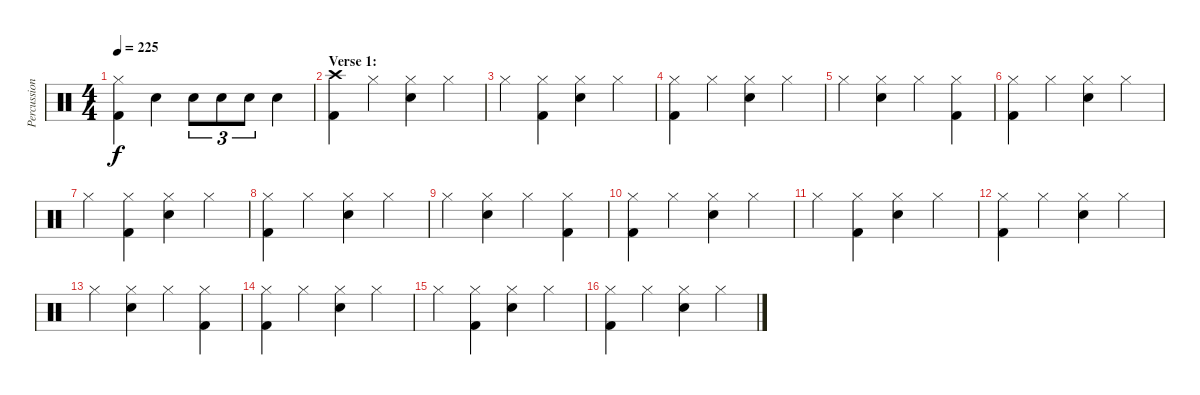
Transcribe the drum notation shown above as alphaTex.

\track ("Percussion" "Percussion") {instrument percussion}
\staff {score}
\articulation defaults
\ts (4 4)
\tempo 225
\clef neutral
\ks c
("Hi-Hat (closed)" "Kick (hit) 2").4{dy f} "Electric Snare (hit)".4 "Electric Snare (hit)".8{tu (3 2)} "Electric Snare (hit)".8{tu (3 2)} "Electric Snare (hit)".8{tu (3 2)} "Electric Snare (hit)".4 |
\section ("" "Verse 1:")
("Crash high (hit)" "Kick (hit) 2").4 "Hi-Hat (closed)".4 ("Hi-Hat (closed)" "Electric Snare (hit)").4 "Hi-Hat (closed)".4 |
"Hi-Hat (closed)".4 ("Hi-Hat (closed)" "Kick (hit) 2").4 ("Hi-Hat (closed)" "Electric Snare (hit)").4 "Hi-Hat (closed)".4 |
("Hi-Hat (closed)" "Kick (hit) 2").4 "Hi-Hat (closed)".4 ("Hi-Hat (closed)" "Electric Snare (hit)").4 "Hi-Hat (closed)".4 |
"Hi-Hat (closed)".4 ("Hi-Hat (closed)" "Electric Snare (hit)").4 "Hi-Hat (closed)".4 ("Hi-Hat (closed)" "Kick (hit) 2").4 |
("Hi-Hat (closed)" "Kick (hit) 2").4 "Hi-Hat (closed)".4 ("Hi-Hat (closed)" "Electric Snare (hit)").4 "Hi-Hat (closed)".4 |
"Hi-Hat (closed)".4 ("Hi-Hat (closed)" "Kick (hit) 2").4 ("Hi-Hat (closed)" "Electric Snare (hit)").4 "Hi-Hat (closed)".4 |
("Hi-Hat (closed)" "Kick (hit) 2").4 "Hi-Hat (closed)".4 ("Hi-Hat (closed)" "Electric Snare (hit)").4 "Hi-Hat (closed)".4 |
"Hi-Hat (closed)".4 ("Hi-Hat (closed)" "Electric Snare (hit)").4 "Hi-Hat (closed)".4 ("Hi-Hat (closed)" "Kick (hit) 2").4 |
("Hi-Hat (closed)" "Kick (hit) 2").4 "Hi-Hat (closed)".4 ("Hi-Hat (closed)" "Electric Snare (hit)").4 "Hi-Hat (closed)".4 |
"Hi-Hat (closed)".4 ("Hi-Hat (closed)" "Kick (hit) 2").4 ("Hi-Hat (closed)" "Electric Snare (hit)").4 "Hi-Hat (closed)".4 |
("Hi-Hat (closed)" "Kick (hit) 2").4 "Hi-Hat (closed)".4 ("Hi-Hat (closed)" "Electric Snare (hit)").4 "Hi-Hat (closed)".4 |
"Hi-Hat (closed)".4 ("Hi-Hat (closed)" "Electric Snare (hit)").4 "Hi-Hat (closed)".4 ("Hi-Hat (closed)" "Kick (hit) 2").4 |
("Hi-Hat (closed)" "Kick (hit) 2").4 "Hi-Hat (closed)".4 ("Hi-Hat (closed)" "Electric Snare (hit)").4 "Hi-Hat (closed)".4 |
"Hi-Hat (closed)".4 ("Hi-Hat (closed)" "Kick (hit) 2").4 ("Hi-Hat (closed)" "Electric Snare (hit)").4 "Hi-Hat (closed)".4 |
("Hi-Hat (closed)" "Kick (hit) 2").4 "Hi-Hat (closed)".4 ("Hi-Hat (closed)" "Electric Snare (hit)").4 "Hi-Hat (closed)".4
